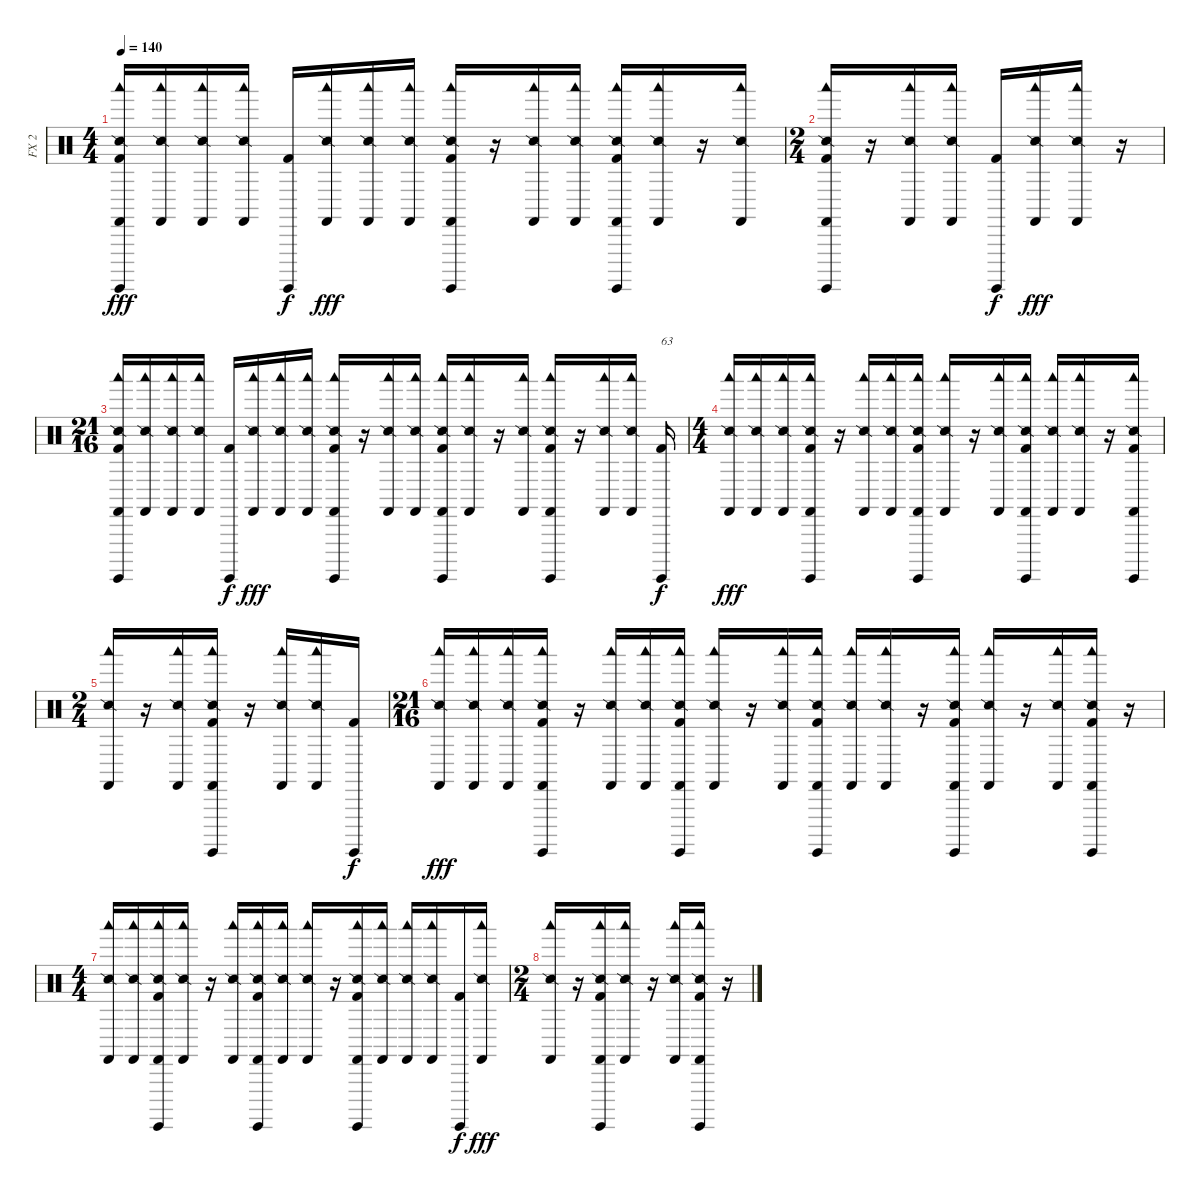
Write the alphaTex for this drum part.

\track ("FX 2" "FX 2") {instrument percussion}
\staff {score}
\articulation defaults
\ts (4 4)
\tempo 140
\clef neutral
\ks c
("Snare (side stick) 2" "Woodblock low (hit)" "Castanets (hit)" "Surdo (hit)" "Kick (hit) 2").16{dy fff} ("Snare (side stick) 2" "Woodblock low (hit)" "Castanets (hit)").16 ("Snare (side stick) 2" "Woodblock low (hit)" "Castanets (hit)").16 ("Snare (side stick) 2" "Woodblock low (hit)" "Castanets (hit)").16 ("Surdo (hit)" "Kick (hit) 2").16{dy f} ("Snare (side stick) 2" "Woodblock low (hit)" "Castanets (hit)").16{dy fff} ("Snare (side stick) 2" "Woodblock low (hit)" "Castanets (hit)").16 ("Snare (side stick) 2" "Woodblock low (hit)" "Castanets (hit)").16 ("Snare (side stick) 2" "Woodblock low (hit)" "Castanets (hit)" "Surdo (hit)" "Kick (hit) 2").16 r.16 ("Snare (side stick) 2" "Woodblock low (hit)" "Castanets (hit)").16 ("Snare (side stick) 2" "Woodblock low (hit)" "Castanets (hit)").16 ("Snare (side stick) 2" "Woodblock low (hit)" "Castanets (hit)" "Surdo (hit)" "Kick (hit) 2").16 ("Snare (side stick) 2" "Woodblock low (hit)" "Castanets (hit)").16 r.16 ("Snare (side stick) 2" "Woodblock low (hit)" "Castanets (hit)").16 |
\ts (2 4)
("Snare (side stick) 2" "Woodblock low (hit)" "Castanets (hit)" "Surdo (hit)" "Kick (hit) 2").16 r.16 ("Snare (side stick) 2" "Woodblock low (hit)" "Castanets (hit)").16 ("Snare (side stick) 2" "Woodblock low (hit)" "Castanets (hit)").16 ("Surdo (hit)" "Kick (hit) 2").16{dy f} ("Snare (side stick) 2" "Woodblock low (hit)" "Castanets (hit)").16{dy fff} ("Snare (side stick) 2" "Woodblock low (hit)" "Castanets (hit)").16 r.16 |
\ts (21 16)
("Snare (side stick) 2" "Woodblock low (hit)" "Castanets (hit)" "Surdo (hit)" "Kick (hit) 2").16 ("Snare (side stick) 2" "Woodblock low (hit)" "Castanets (hit)").16 ("Snare (side stick) 2" "Woodblock low (hit)" "Castanets (hit)").16 ("Snare (side stick) 2" "Woodblock low (hit)" "Castanets (hit)").16 ("Surdo (hit)" "Kick (hit) 2").16{dy f} ("Snare (side stick) 2" "Woodblock low (hit)" "Castanets (hit)").16{dy fff} ("Snare (side stick) 2" "Woodblock low (hit)" "Castanets (hit)").16 ("Snare (side stick) 2" "Woodblock low (hit)" "Castanets (hit)").16 ("Snare (side stick) 2" "Woodblock low (hit)" "Castanets (hit)" "Surdo (hit)" "Kick (hit) 2").16 r.16 ("Snare (side stick) 2" "Woodblock low (hit)" "Castanets (hit)").16 ("Snare (side stick) 2" "Woodblock low (hit)" "Castanets (hit)").16 ("Snare (side stick) 2" "Woodblock low (hit)" "Castanets (hit)" "Surdo (hit)" "Kick (hit) 2").16 ("Snare (side stick) 2" "Woodblock low (hit)" "Castanets (hit)").16 r.16 ("Snare (side stick) 2" "Woodblock low (hit)" "Castanets (hit)").16 ("Snare (side stick) 2" "Woodblock low (hit)" "Castanets (hit)" "Surdo (hit)" "Kick (hit) 2").16 r.16 ("Snare (side stick) 2" "Woodblock low (hit)" "Castanets (hit)").16 ("Snare (side stick) 2" "Woodblock low (hit)" "Castanets (hit)").16 ("Surdo (hit)" "Kick (hit) 2").16{txt "63" dy f} |
\ts (4 4)
("Snare (side stick) 2" "Woodblock low (hit)" "Castanets (hit)").16{dy fff} ("Snare (side stick) 2" "Woodblock low (hit)" "Castanets (hit)").16 ("Snare (side stick) 2" "Woodblock low (hit)" "Castanets (hit)").16 ("Snare (side stick) 2" "Woodblock low (hit)" "Castanets (hit)" "Surdo (hit)" "Kick (hit) 2").16 r.16 ("Snare (side stick) 2" "Woodblock low (hit)" "Castanets (hit)").16 ("Snare (side stick) 2" "Woodblock low (hit)" "Castanets (hit)").16 ("Snare (side stick) 2" "Woodblock low (hit)" "Castanets (hit)" "Surdo (hit)" "Kick (hit) 2").16 ("Snare (side stick) 2" "Woodblock low (hit)" "Castanets (hit)").16 r.16 ("Snare (side stick) 2" "Woodblock low (hit)" "Castanets (hit)").16 ("Snare (side stick) 2" "Woodblock low (hit)" "Castanets (hit)" "Surdo (hit)" "Kick (hit) 2").16 ("Snare (side stick) 2" "Woodblock low (hit)" "Castanets (hit)").16 ("Snare (side stick) 2" "Woodblock low (hit)" "Castanets (hit)").16 r.16 ("Snare (side stick) 2" "Woodblock low (hit)" "Castanets (hit)" "Surdo (hit)" "Kick (hit) 2").16 |
\ts (2 4)
("Snare (side stick) 2" "Woodblock low (hit)" "Castanets (hit)").16 r.16 ("Snare (side stick) 2" "Woodblock low (hit)" "Castanets (hit)").16 ("Snare (side stick) 2" "Woodblock low (hit)" "Castanets (hit)" "Surdo (hit)" "Kick (hit) 2").16 r.16 ("Snare (side stick) 2" "Woodblock low (hit)" "Castanets (hit)").16 ("Snare (side stick) 2" "Woodblock low (hit)" "Castanets (hit)").16 ("Surdo (hit)" "Kick (hit) 2").16{dy f} |
\ts (21 16)
("Snare (side stick) 2" "Woodblock low (hit)" "Castanets (hit)").16{dy fff} ("Snare (side stick) 2" "Woodblock low (hit)" "Castanets (hit)").16 ("Snare (side stick) 2" "Woodblock low (hit)" "Castanets (hit)").16 ("Snare (side stick) 2" "Woodblock low (hit)" "Castanets (hit)" "Surdo (hit)" "Kick (hit) 2").16 r.16 ("Snare (side stick) 2" "Woodblock low (hit)" "Castanets (hit)").16 ("Snare (side stick) 2" "Woodblock low (hit)" "Castanets (hit)").16 ("Snare (side stick) 2" "Woodblock low (hit)" "Castanets (hit)" "Surdo (hit)" "Kick (hit) 2").16 ("Snare (side stick) 2" "Woodblock low (hit)" "Castanets (hit)").16 r.16 ("Snare (side stick) 2" "Woodblock low (hit)" "Castanets (hit)").16 ("Snare (side stick) 2" "Woodblock low (hit)" "Castanets (hit)" "Surdo (hit)" "Kick (hit) 2").16 ("Snare (side stick) 2" "Woodblock low (hit)" "Castanets (hit)").16 ("Snare (side stick) 2" "Woodblock low (hit)" "Castanets (hit)").16 r.16 ("Snare (side stick) 2" "Woodblock low (hit)" "Castanets (hit)" "Surdo (hit)" "Kick (hit) 2").16 ("Snare (side stick) 2" "Woodblock low (hit)" "Castanets (hit)").16 r.16 ("Snare (side stick) 2" "Woodblock low (hit)" "Castanets (hit)").16 ("Snare (side stick) 2" "Woodblock low (hit)" "Castanets (hit)" "Surdo (hit)" "Kick (hit) 2").16 r.16 |
\ts (4 4)
("Snare (side stick) 2" "Woodblock low (hit)" "Castanets (hit)").16 ("Snare (side stick) 2" "Woodblock low (hit)" "Castanets (hit)").16 ("Snare (side stick) 2" "Woodblock low (hit)" "Castanets (hit)" "Surdo (hit)" "Kick (hit) 2").16 ("Snare (side stick) 2" "Woodblock low (hit)" "Castanets (hit)").16 r.16 ("Snare (side stick) 2" "Woodblock low (hit)" "Castanets (hit)").16 ("Snare (side stick) 2" "Woodblock low (hit)" "Castanets (hit)" "Surdo (hit)" "Kick (hit) 2").16 ("Snare (side stick) 2" "Woodblock low (hit)" "Castanets (hit)").16 ("Snare (side stick) 2" "Woodblock low (hit)" "Castanets (hit)").16 r.16 ("Snare (side stick) 2" "Woodblock low (hit)" "Castanets (hit)" "Surdo (hit)" "Kick (hit) 2").16 ("Snare (side stick) 2" "Woodblock low (hit)" "Castanets (hit)").16 ("Snare (side stick) 2" "Woodblock low (hit)" "Castanets (hit)").16 ("Snare (side stick) 2" "Woodblock low (hit)" "Castanets (hit)").16 ("Surdo (hit)" "Kick (hit) 2").16{dy f} ("Snare (side stick) 2" "Woodblock low (hit)" "Castanets (hit)").16{dy fff} |
\ts (2 4)
("Snare (side stick) 2" "Woodblock low (hit)" "Castanets (hit)").16 r.16 ("Snare (side stick) 2" "Woodblock low (hit)" "Castanets (hit)" "Surdo (hit)" "Kick (hit) 2").16 ("Snare (side stick) 2" "Woodblock low (hit)" "Castanets (hit)").16 r.16 ("Snare (side stick) 2" "Woodblock low (hit)" "Castanets (hit)").16 ("Snare (side stick) 2" "Woodblock low (hit)" "Castanets (hit)" "Surdo (hit)" "Kick (hit) 2").16 r.16
